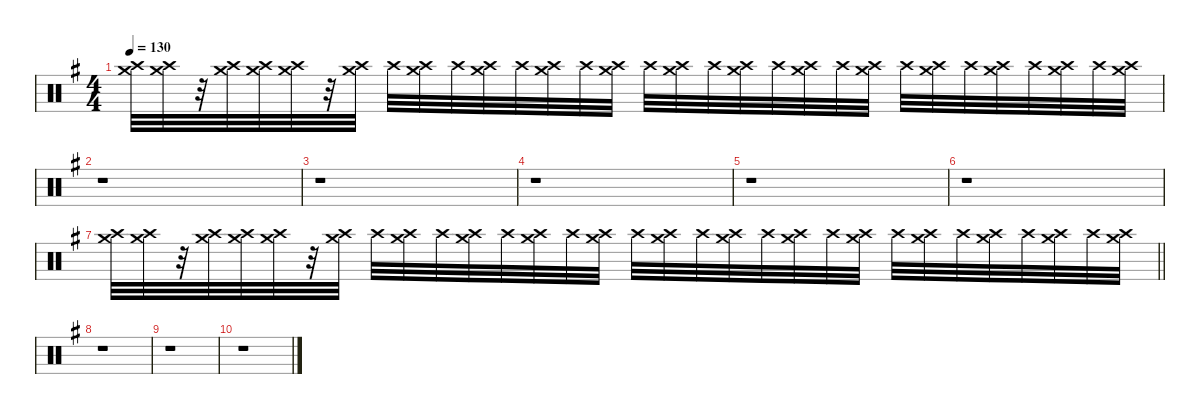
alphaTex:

\defaultSystemsLayout 4
\hideDynamics
\bracketExtendMode nobrackets
\singleTrackTrackNamePolicy hidden
\multiTrackTrackNamePolicy hidden
\otherSystemsTrackNameOrientation horizontal
\track ("Percussioni" "drm.") {instrument percussion}
\staff {score}
\articulation defaults
\ts (4 4)
\tempo 130
\clef neutral
\ks eminor
("Crash high (hit)"{acc forcenatural} "Crash medium (hit)"{acc forcenatural}).32{dy f beam Down} ("Crash high (hit)"{acc forcenatural} "Crash medium (hit)"{acc forcenatural}).32{beam Down} r.32{beam Down} ("Crash high (hit)"{acc forcenatural} "Crash medium (hit)"{acc forcenatural}).32{beam Down} ("Crash high (hit)"{acc forcenatural} "Crash medium (hit)"{acc forcenatural}).32{beam Down} ("Crash high (hit)"{acc forcenatural} "Crash medium (hit)"{acc forcenatural}).32{beam Down} r.32{beam Down} ("Crash high (hit)"{acc forcenatural} "Crash medium (hit)"{acc forcenatural}).32{beam Down} "Crash high (hit)"{acc forcenatural}.32{beam Down} ("Crash high (hit)"{acc forcenatural} "Crash medium (hit)"{acc forcenatural}).32{beam Down} "Crash high (hit)"{acc forcenatural}.32{beam Down} ("Crash high (hit)"{acc forcenatural} "Crash medium (hit)"{acc forcenatural}).32{beam Down} "Crash high (hit)"{acc forcenatural}.32{beam Down} ("Crash high (hit)"{acc forcenatural} "Crash medium (hit)"{acc forcenatural}).32{beam Down} "Crash high (hit)"{acc forcenatural}.32{beam Down} ("Crash high (hit)"{acc forcenatural} "Crash medium (hit)"{acc forcenatural}).32{beam Down} "Crash high (hit)"{acc forcenatural}.32{beam Down} ("Crash high (hit)"{acc forcenatural} "Crash medium (hit)"{acc forcenatural}).32{beam Down} "Crash high (hit)"{acc forcenatural}.32{beam Down} ("Crash high (hit)"{acc forcenatural} "Crash medium (hit)"{acc forcenatural}).32{beam Down} "Crash high (hit)"{acc forcenatural}.32{beam Down} ("Crash high (hit)"{acc forcenatural} "Crash medium (hit)"{acc forcenatural}).32{beam Down} "Crash high (hit)"{acc forcenatural}.32{beam Down} ("Crash high (hit)"{acc forcenatural} "Crash medium (hit)"{acc forcenatural}).32{beam Down} "Crash high (hit)"{acc forcenatural}.32{beam Down} ("Crash high (hit)"{acc forcenatural} "Crash medium (hit)"{acc forcenatural}).32{beam Down} "Crash high (hit)"{acc forcenatural}.32{beam Down} ("Crash high (hit)"{acc forcenatural} "Crash medium (hit)"{acc forcenatural}).32{beam Down} "Crash high (hit)"{acc forcenatural}.32{beam Down} ("Crash high (hit)"{acc forcenatural} "Crash medium (hit)"{acc forcenatural}).32{beam Down} "Crash high (hit)"{acc forcenatural}.32{beam Down} ("Crash high (hit)"{acc forcenatural} "Crash medium (hit)"{acc forcenatural}).32{beam Down} |
r.1{beam Down} |
r.1{beam Down} |
r.1{beam Down} |
r.1{beam Down} |
r.1{beam Down} |
\barLineRight lightlight
("Crash high (hit)"{acc forcenatural} "Crash medium (hit)"{acc forcenatural}).32{beam Down} ("Crash high (hit)"{acc forcenatural} "Crash medium (hit)"{acc forcenatural}).32{beam Down} r.32{beam Down} ("Crash high (hit)"{acc forcenatural} "Crash medium (hit)"{acc forcenatural}).32{beam Down} ("Crash high (hit)"{acc forcenatural} "Crash medium (hit)"{acc forcenatural}).32{beam Down} ("Crash high (hit)"{acc forcenatural} "Crash medium (hit)"{acc forcenatural}).32{beam Down} r.32{beam Down} ("Crash high (hit)"{acc forcenatural} "Crash medium (hit)"{acc forcenatural}).32{beam Down} "Crash high (hit)"{acc forcenatural}.32{beam Down} ("Crash high (hit)"{acc forcenatural} "Crash medium (hit)"{acc forcenatural}).32{beam Down} "Crash high (hit)"{acc forcenatural}.32{beam Down} ("Crash high (hit)"{acc forcenatural} "Crash medium (hit)"{acc forcenatural}).32{beam Down} "Crash high (hit)"{acc forcenatural}.32{beam Down} ("Crash high (hit)"{acc forcenatural} "Crash medium (hit)"{acc forcenatural}).32{beam Down} "Crash high (hit)"{acc forcenatural}.32{beam Down} ("Crash high (hit)"{acc forcenatural} "Crash medium (hit)"{acc forcenatural}).32{beam Down} "Crash high (hit)"{acc forcenatural}.32{beam Down} ("Crash high (hit)"{acc forcenatural} "Crash medium (hit)"{acc forcenatural}).32{beam Down} "Crash high (hit)"{acc forcenatural}.32{beam Down} ("Crash high (hit)"{acc forcenatural} "Crash medium (hit)"{acc forcenatural}).32{beam Down} "Crash high (hit)"{acc forcenatural}.32{beam Down} ("Crash high (hit)"{acc forcenatural} "Crash medium (hit)"{acc forcenatural}).32{beam Down} "Crash high (hit)"{acc forcenatural}.32{beam Down} ("Crash high (hit)"{acc forcenatural} "Crash medium (hit)"{acc forcenatural}).32{beam Down} "Crash high (hit)"{acc forcenatural}.32{beam Down} ("Crash high (hit)"{acc forcenatural} "Crash medium (hit)"{acc forcenatural}).32{beam Down} "Crash high (hit)"{acc forcenatural}.32{beam Down} ("Crash high (hit)"{acc forcenatural} "Crash medium (hit)"{acc forcenatural}).32{beam Down} "Crash high (hit)"{acc forcenatural}.32{beam Down} ("Crash high (hit)"{acc forcenatural} "Crash medium (hit)"{acc forcenatural}).32{beam Down} "Crash high (hit)"{acc forcenatural}.32{beam Down} ("Crash high (hit)"{acc forcenatural} "Crash medium (hit)"{acc forcenatural}).32{beam Down} |
r.1{beam Down} |
r.1{beam Down} |
r.1{beam Down}
